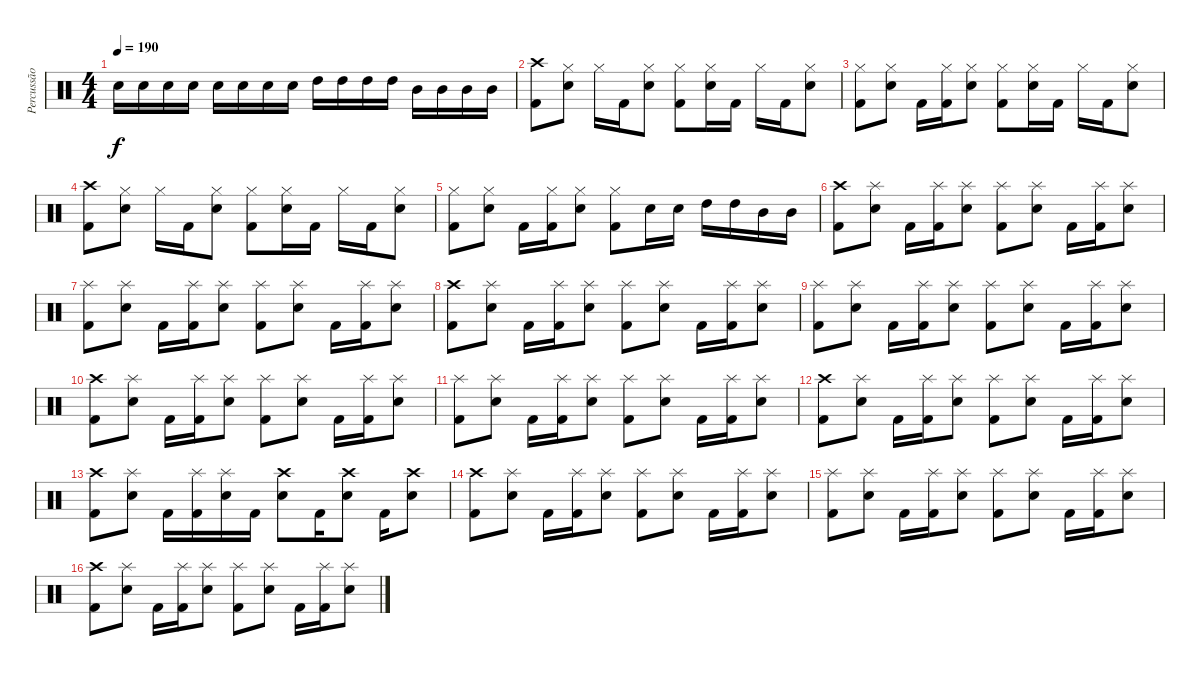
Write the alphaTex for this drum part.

\track ("Percussão" "Percussão") {instrument percussion}
\staff {score}
\articulation defaults
\ts (4 4)
\tempo 190
\clef neutral
\ks c "Electric Snare (hit)".16{dy f} "Electric Snare (hit)".16 "Electric Snare (hit)".16 "Electric Snare (hit)".16 "Electric Snare (hit)".16 "Electric Snare (hit)".16 "Electric Snare (hit)".16 "Electric Snare (hit)".16 "High Tom (hit)".16 "High Tom (hit)".16 "High Tom (hit)".16 "High Tom (hit)".16 "Mid Tom (hit)".16 "Mid Tom (hit)".16 "Mid Tom (hit)".16 "Mid Tom (hit)".16
|
("Crash high (hit)" "Kick (hit) 2").8 ("Hi-Hat (closed)" "Electric Snare (hit)").8 "Hi-Hat (closed)".16 "Kick (hit) 2".16 ("Hi-Hat (closed)" "Electric Snare (hit)").8 ("Hi-Hat (closed)" "Kick (hit) 2").8 ("Hi-Hat (closed)" "Electric Snare (hit)").16 "Kick (hit) 2".16 "Hi-Hat (closed)".16 "Kick (hit) 2".16 ("Hi-Hat (closed)" "Electric Snare (hit)").8 |
("Hi-Hat (closed)" "Kick (hit) 2").8 ("Hi-Hat (closed)" "Electric Snare (hit)").8 "Kick (hit) 2".16 ("Hi-Hat (closed)" "Kick (hit) 2").16 ("Hi-Hat (closed)" "Electric Snare (hit)").8 ("Hi-Hat (closed)" "Kick (hit) 2").8 ("Hi-Hat (closed)" "Electric Snare (hit)").16 "Kick (hit) 2".16 "Hi-Hat (closed)".16 "Kick (hit) 2".16 ("Hi-Hat (closed)" "Electric Snare (hit)").8 |
("Crash high (hit)" "Kick (hit) 2").8 ("Hi-Hat (closed)" "Electric Snare (hit)").8 "Hi-Hat (closed)".16 "Kick (hit) 2".16 ("Hi-Hat (closed)" "Electric Snare (hit)").8 ("Hi-Hat (closed)" "Kick (hit) 2").8 ("Hi-Hat (closed)" "Electric Snare (hit)").16 "Kick (hit) 2".16 "Hi-Hat (closed)".16 "Kick (hit) 2".16 ("Hi-Hat (closed)" "Electric Snare (hit)").8 |
("Hi-Hat (closed)" "Kick (hit) 2").8 ("Hi-Hat (closed)" "Electric Snare (hit)").8 "Kick (hit) 2".16 ("Hi-Hat (closed)" "Kick (hit) 2").16 ("Hi-Hat (closed)" "Electric Snare (hit)").8 ("Hi-Hat (closed)" "Kick (hit) 2").8 "Electric Snare (hit)".16 "Electric Snare (hit)".16 "High Tom (hit)".16 "High Tom (hit)".16 "Mid Tom (hit)".16 "Mid Tom (hit)".16 |
("Crash high (hit)" "Kick (hit) 2").8 ("Splash (hit)" "Electric Snare (hit)").8 "Kick (hit) 2".16 ("Splash (hit)" "Kick (hit) 2").16 ("Splash (hit)" "Electric Snare (hit)").8 ("Splash (hit)" "Kick (hit) 2").8 ("Splash (hit)" "Electric Snare (hit)").8 "Kick (hit) 2".16 ("Splash (hit)" "Kick (hit) 2").16 ("Splash (hit)" "Electric Snare (hit)").8 |
("Splash (hit)" "Kick (hit) 2").8 ("Splash (hit)" "Electric Snare (hit)").8 "Kick (hit) 2".16 ("Splash (hit)" "Kick (hit) 2").16 ("Splash (hit)" "Electric Snare (hit)").8 ("Splash (hit)" "Kick (hit) 2").8 ("Splash (hit)" "Electric Snare (hit)").8 "Kick (hit) 2".16 ("Splash (hit)" "Kick (hit) 2").16 ("Splash (hit)" "Electric Snare (hit)").8 |
("Crash high (hit)" "Kick (hit) 2").8 ("Splash (hit)" "Electric Snare (hit)").8 "Kick (hit) 2".16 ("Splash (hit)" "Kick (hit) 2").16 ("Splash (hit)" "Electric Snare (hit)").8 ("Splash (hit)" "Kick (hit) 2").8 ("Splash (hit)" "Electric Snare (hit)").8 "Kick (hit) 2".16 ("Splash (hit)" "Kick (hit) 2").16 ("Splash (hit)" "Electric Snare (hit)").8 |
("Splash (hit)" "Kick (hit) 2").8 ("Splash (hit)" "Electric Snare (hit)").8 "Kick (hit) 2".16 ("Splash (hit)" "Kick (hit) 2").16 ("Splash (hit)" "Electric Snare (hit)").8 ("Splash (hit)" "Kick (hit) 2").8 ("Splash (hit)" "Electric Snare (hit)").8 "Kick (hit) 2".16 ("Splash (hit)" "Kick (hit) 2").16 ("Splash (hit)" "Electric Snare (hit)").8 |
("Crash high (hit)" "Kick (hit) 2").8 ("Splash (hit)" "Electric Snare (hit)").8 "Kick (hit) 2".16 ("Splash (hit)" "Kick (hit) 2").16 ("Splash (hit)" "Electric Snare (hit)").8 ("Splash (hit)" "Kick (hit) 2").8 ("Splash (hit)" "Electric Snare (hit)").8 "Kick (hit) 2".16 ("Splash (hit)" "Kick (hit) 2").16 ("Splash (hit)" "Electric Snare (hit)").8 |
("Splash (hit)" "Kick (hit) 2").8 ("Splash (hit)" "Electric Snare (hit)").8 "Kick (hit) 2".16 ("Splash (hit)" "Kick (hit) 2").16 ("Splash (hit)" "Electric Snare (hit)").8 ("Splash (hit)" "Kick (hit) 2").8 ("Splash (hit)" "Electric Snare (hit)").8 "Kick (hit) 2".16 ("Splash (hit)" "Kick (hit) 2").16 ("Splash (hit)" "Electric Snare (hit)").8 |
("Crash high (hit)" "Kick (hit) 2").8 ("Splash (hit)" "Electric Snare (hit)").8 "Kick (hit) 2".16 ("Splash (hit)" "Kick (hit) 2").16 ("Splash (hit)" "Electric Snare (hit)").8 ("Splash (hit)" "Kick (hit) 2").8 ("Splash (hit)" "Electric Snare (hit)").8 "Kick (hit) 2".16 ("Splash (hit)" "Kick (hit) 2").16 ("Splash (hit)" "Electric Snare (hit)").8 |
("Crash high (hit)" "Kick (hit) 2").8 ("Splash (hit)" "Electric Snare (hit)").8 "Kick (hit) 2".16 ("Splash (hit)" "Kick (hit) 2").16 ("Splash (hit)" "Electric Snare (hit)").16 "Kick (hit) 2".16 ("Crash high (hit)" "Electric Snare (hit)").8 "Kick (hit) 2".16 ("Crash high (hit)" "Electric Snare (hit)").8 "Kick (hit) 2".16 ("Crash high (hit)" "Electric Snare (hit)").8 |
("Crash high (hit)" "Kick (hit) 2").8 ("Splash (hit)" "Electric Snare (hit)").8 "Kick (hit) 2".16 ("Splash (hit)" "Kick (hit) 2").16 ("Splash (hit)" "Electric Snare (hit)").8 ("Splash (hit)" "Kick (hit) 2").8 ("Splash (hit)" "Electric Snare (hit)").8 "Kick (hit) 2".16 ("Splash (hit)" "Kick (hit) 2").16 ("Splash (hit)" "Electric Snare (hit)").8 |
("Splash (hit)" "Kick (hit) 2").8 ("Splash (hit)" "Electric Snare (hit)").8 "Kick (hit) 2".16 ("Splash (hit)" "Kick (hit) 2").16 ("Splash (hit)" "Electric Snare (hit)").8 ("Splash (hit)" "Kick (hit) 2").8 ("Splash (hit)" "Electric Snare (hit)").8 "Kick (hit) 2".16 ("Splash (hit)" "Kick (hit) 2").16 ("Splash (hit)" "Electric Snare (hit)").8 |
("Crash high (hit)" "Kick (hit) 2").8 ("Splash (hit)" "Electric Snare (hit)").8 "Kick (hit) 2".16 ("Splash (hit)" "Kick (hit) 2").16 ("Splash (hit)" "Electric Snare (hit)").8 ("Splash (hit)" "Kick (hit) 2").8 ("Splash (hit)" "Electric Snare (hit)").8 "Kick (hit) 2".16 ("Splash (hit)" "Kick (hit) 2").16 ("Splash (hit)" "Electric Snare (hit)").8
